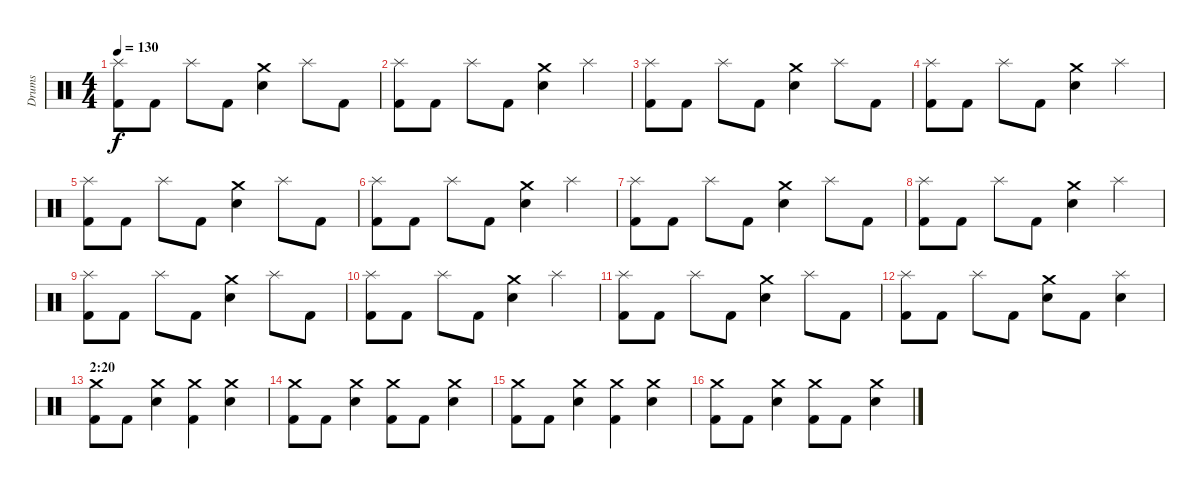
\track ("Drums" "Drums") {instrument percussion}
\staff {score}
\articulation defaults
\ts (4 4)
\tempo 130
\clef neutral
\ks c
("Splash (hit)" "Kick (hit) 2").8{dy f} "Kick (hit) 2".8 "Splash (hit)".8 "Kick (hit) 2".8 ("Crash medium (hit)" "Snare (hit) 2").4 "Splash (hit)".8 "Kick (hit) 2".8 |
("Splash (hit)" "Kick (hit) 2").8 "Kick (hit) 2".8 "Splash (hit)".8 "Kick (hit) 2".8 ("Crash medium (hit)" "Snare (hit) 2").4 "Splash (hit)".4 |
("Splash (hit)" "Kick (hit) 2").8 "Kick (hit) 2".8 "Splash (hit)".8 "Kick (hit) 2".8 ("Crash medium (hit)" "Snare (hit) 2").4 "Splash (hit)".8 "Kick (hit) 2".8 |
("Splash (hit)" "Kick (hit) 2").8 "Kick (hit) 2".8 "Splash (hit)".8 "Kick (hit) 2".8 ("Crash medium (hit)" "Snare (hit) 2").4 "Splash (hit)".4 |
("Splash (hit)" "Kick (hit) 2").8 "Kick (hit) 2".8 "Splash (hit)".8 "Kick (hit) 2".8 ("Crash medium (hit)" "Snare (hit) 2").4 "Splash (hit)".8 "Kick (hit) 2".8 |
("Splash (hit)" "Kick (hit) 2").8 "Kick (hit) 2".8 "Splash (hit)".8 "Kick (hit) 2".8 ("Crash medium (hit)" "Snare (hit) 2").4 "Splash (hit)".4 |
("Splash (hit)" "Kick (hit) 2").8 "Kick (hit) 2".8 "Splash (hit)".8 "Kick (hit) 2".8 ("Crash medium (hit)" "Snare (hit) 2").4 "Splash (hit)".8 "Kick (hit) 2".8 |
("Splash (hit)" "Kick (hit) 2").8 "Kick (hit) 2".8 "Splash (hit)".8 "Kick (hit) 2".8 ("Crash medium (hit)" "Snare (hit) 2").4 "Splash (hit)".4 |
("Splash (hit)" "Kick (hit) 2").8 "Kick (hit) 2".8 "Splash (hit)".8 "Kick (hit) 2".8 ("Crash medium (hit)" "Snare (hit) 2").4 "Splash (hit)".8 "Kick (hit) 2".8 |
("Splash (hit)" "Kick (hit) 2").8 "Kick (hit) 2".8 "Splash (hit)".8 "Kick (hit) 2".8 ("Crash medium (hit)" "Snare (hit) 2").4 "Splash (hit)".4 |
("Splash (hit)" "Kick (hit) 2").8 "Kick (hit) 2".8 "Splash (hit)".8 "Kick (hit) 2".8 ("Crash medium (hit)" "Snare (hit) 2").4 "Splash (hit)".8 "Kick (hit) 2".8 |
("Splash (hit)" "Kick (hit) 2").8 "Kick (hit) 2".8 "Splash (hit)".8 "Kick (hit) 2".8 ("Crash medium (hit)" "Snare (hit) 2").8 "Kick (hit) 2".8 ("Splash (hit)" "Snare (hit) 2").4 |
\section ("" "2:20")
("Crash medium (hit)" "Kick (hit) 2").8 "Kick (hit) 2".8 ("Crash medium (hit)" "Snare (hit) 2").4 ("Crash medium (hit)" "Kick (hit) 2").4 ("Crash medium (hit)" "Snare (hit) 2").4 |
("Crash medium (hit)" "Kick (hit) 2").8 "Kick (hit) 2".8 ("Crash medium (hit)" "Snare (hit) 2").4 ("Crash medium (hit)" "Kick (hit) 2").8 "Kick (hit) 2".8 ("Crash medium (hit)" "Snare (hit) 2").4 |
("Crash medium (hit)" "Kick (hit) 2").8 "Kick (hit) 2".8 ("Crash medium (hit)" "Snare (hit) 2").4 ("Crash medium (hit)" "Kick (hit) 2").4 ("Crash medium (hit)" "Snare (hit) 2").4 |
("Crash medium (hit)" "Kick (hit) 2").8 "Kick (hit) 2".8 ("Crash medium (hit)" "Snare (hit) 2").4 ("Crash medium (hit)" "Kick (hit) 2").8 "Kick (hit) 2".8 ("Crash medium (hit)" "Snare (hit) 2").4
